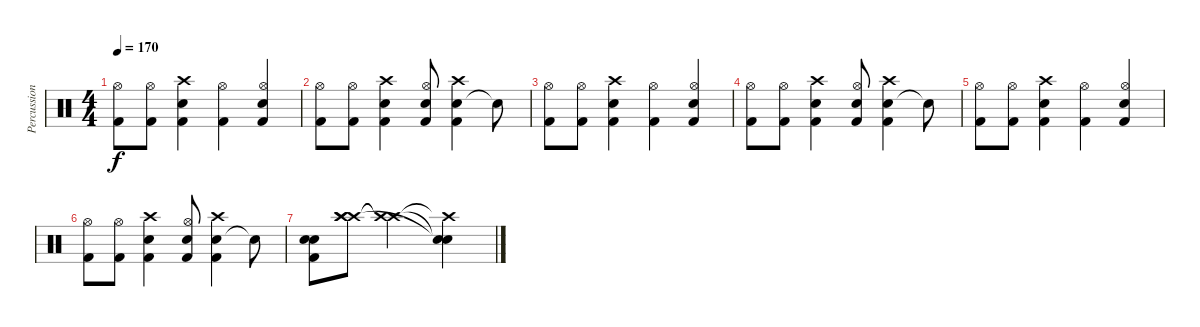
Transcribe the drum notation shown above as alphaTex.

\track ("Percussion" "Percussion") {instrument percussion}
\staff {score}
\articulation defaults
\ts (4 4)
\tempo 170
\clef neutral
\ks c
("Kick (hit) 2" "Hi-Hat (open)").8{dy f} ("Kick (hit) 2" "Hi-Hat (open)").8 ("Electric Snare (hit)" "Kick (hit) 2" "Crash high (hit)").4 ("Kick (hit) 2" "Hi-Hat (open)").4 ("Electric Snare (hit)" "Kick (hit) 2" "Hi-Hat (open)").4 |
("Kick (hit) 2" "Hi-Hat (open)").8 ("Kick (hit) 2" "Hi-Hat (open)").8 ("Electric Snare (hit)" "Kick (hit) 2" "Crash high (hit)").4 ("Electric Snare (hit)" "Kick (hit) 2" "Hi-Hat (open)").8 ("Electric Snare (hit)" "Kick (hit) 2" "Crash high (hit)").4 "Snare (hit)"{t}.8 |
("Kick (hit) 2" "Hi-Hat (open)").8 ("Kick (hit) 2" "Hi-Hat (open)").8 ("Electric Snare (hit)" "Kick (hit) 2" "Crash high (hit)").4 ("Kick (hit) 2" "Hi-Hat (open)").4 ("Electric Snare (hit)" "Kick (hit) 2" "Hi-Hat (open)").4 |
("Kick (hit) 2" "Hi-Hat (open)").8 ("Kick (hit) 2" "Hi-Hat (open)").8 ("Electric Snare (hit)" "Kick (hit) 2" "Crash high (hit)").4 ("Electric Snare (hit)" "Kick (hit) 2" "Hi-Hat (open)").8 ("Electric Snare (hit)" "Kick (hit) 2" "Crash high (hit)").4 "Snare (hit)"{t}.8 |
("Kick (hit) 2" "Hi-Hat (open)").8 ("Kick (hit) 2" "Hi-Hat (open)").8 ("Electric Snare (hit)" "Kick (hit) 2" "Crash high (hit)").4 ("Kick (hit) 2" "Hi-Hat (open)").4 ("Electric Snare (hit)" "Kick (hit) 2" "Hi-Hat (open)").4 |
("Kick (hit) 2" "Hi-Hat (open)").8 ("Kick (hit) 2" "Hi-Hat (open)").8 ("Electric Snare (hit)" "Kick (hit) 2" "Crash high (hit)").4 ("Electric Snare (hit)" "Kick (hit) 2" "Hi-Hat (open)").8 ("Electric Snare (hit)" "Kick (hit) 2" "Crash high (hit)").4 "Snare (hit)"{t}.8 |
("Electric Snare (hit)" "Kick (hit) 2" "Snare (hit) 2").8 ("Crash high (hit)" "Crash high (hit)" "Crash high (hit)").8 ("Crash high (hit)"{t} "Crash high (hit)"{t}).2 ("Crash high (hit)"{t} "Snare (hit)"{t} "Snare (hit)"{t}).4
